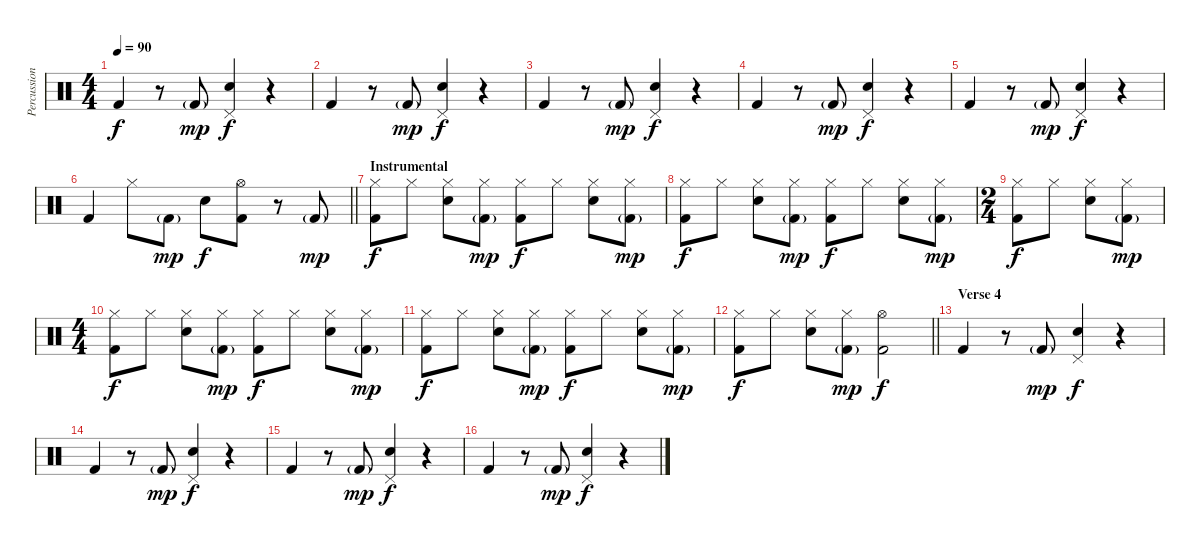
\track ("Percussion" "Percussion") {instrument percussion}
\staff {score}
\articulation defaults
\ts (4 4)
\tempo 90
\clef neutral
\ks c "Kick (hit) 2".4{dy f}
r.8 "Kick (hit) 2"{g}.8{dy mp} ("Pedal Hi-Hat (hit)" "Snare (hit) 2").4{dy f} r.4 |
"Kick (hit) 2".4 r.8 "Kick (hit) 2"{g}.8{dy mp} ("Pedal Hi-Hat (hit)" "Snare (hit) 2").4{dy f} r.4 |
"Kick (hit) 2".4 r.8 "Kick (hit) 2"{g}.8{dy mp} ("Pedal Hi-Hat (hit)" "Snare (hit) 2").4{dy f} r.4 |
"Kick (hit) 2".4 r.8 "Kick (hit) 2"{g}.8{dy mp} ("Pedal Hi-Hat (hit)" "Snare (hit) 2").4{dy f} r.4 |
"Kick (hit) 2".4 r.8 "Kick (hit) 2"{g}.8{dy mp} ("Pedal Hi-Hat (hit)" "Snare (hit) 2").4{dy f} r.4 |
\barLineRight lightlight "Kick (hit) 2".4 "Hi-Hat (closed)".8 "Kick (hit) 2"{g}.8{dy mp} "Snare (hit) 2".8{dy f}
("Hi-Hat (open)" "Kick (hit) 2").8 r.8 "Kick (hit) 2"{g}.8{dy mp} |
\section ("" "Instrumental")
("Hi-Hat (closed)" "Kick (hit) 2").8{dy f} "Hi-Hat (closed)".8 ("Hi-Hat (closed)" "Snare (hit) 2").8 ("Hi-Hat (closed)" "Kick (hit) 2"{g}).8{dy mp} ("Hi-Hat (closed)" "Kick (hit) 2").8{dy f} "Hi-Hat (closed)".8 ("Hi-Hat (closed)" "Snare (hit) 2").8 ("Hi-Hat (closed)" "Kick (hit) 2"{g}).8{dy mp} |
("Hi-Hat (closed)" "Kick (hit) 2").8{dy f} "Hi-Hat (closed)".8 ("Hi-Hat (closed)" "Snare (hit) 2").8 ("Hi-Hat (closed)" "Kick (hit) 2"{g}).8{dy mp} ("Hi-Hat (closed)" "Kick (hit) 2").8{dy f} "Hi-Hat (closed)".8 ("Hi-Hat (closed)" "Snare (hit) 2").8 ("Hi-Hat (closed)" "Kick (hit) 2"{g}).8{dy mp} |
\ts (2 4)
("Hi-Hat (closed)" "Kick (hit) 2").8{dy f} "Hi-Hat (closed)".8 ("Hi-Hat (closed)" "Snare (hit) 2").8 ("Hi-Hat (closed)" "Kick (hit) 2"{g}).8{dy mp} |
\ts (4 4)
("Hi-Hat (closed)" "Kick (hit) 2").8{dy f} "Hi-Hat (closed)".8 ("Hi-Hat (closed)" "Snare (hit) 2").8 ("Hi-Hat (closed)" "Kick (hit) 2"{g}).8{dy mp} ("Hi-Hat (closed)" "Kick (hit) 2").8{dy f} "Hi-Hat (closed)".8 ("Hi-Hat (closed)" "Snare (hit) 2").8 ("Hi-Hat (closed)" "Kick (hit) 2"{g}).8{dy mp} |
("Hi-Hat (closed)" "Kick (hit) 2").8{dy f} "Hi-Hat (closed)".8 ("Hi-Hat (closed)" "Snare (hit) 2").8 ("Hi-Hat (closed)" "Kick (hit) 2"{g}).8{dy mp} ("Hi-Hat (closed)" "Kick (hit) 2").8{dy f} "Hi-Hat (closed)".8 ("Hi-Hat (closed)" "Snare (hit) 2").8 ("Hi-Hat (closed)" "Kick (hit) 2"{g}).8{dy mp} |
\barLineRight lightlight
("Hi-Hat (closed)" "Kick (hit) 2").8{dy f} "Hi-Hat (closed)".8 ("Hi-Hat (closed)" "Snare (hit) 2").8 ("Hi-Hat (closed)" "Kick (hit) 2"{g}).8{dy mp} ("Hi-Hat (open)" "Kick (hit) 2").2{dy f} |
\section ("" "Verse 4")
"Kick (hit) 2".4 r.8 "Kick (hit) 2"{g}.8{dy mp} ("Pedal Hi-Hat (hit)" "Snare (hit) 2").4{dy f} r.4 |
"Kick (hit) 2".4 r.8 "Kick (hit) 2"{g}.8{dy mp} ("Pedal Hi-Hat (hit)" "Snare (hit) 2").4{dy f} r.4 |
"Kick (hit) 2".4 r.8 "Kick (hit) 2"{g}.8{dy mp} ("Pedal Hi-Hat (hit)" "Snare (hit) 2").4{dy f} r.4 |
"Kick (hit) 2".4 r.8 "Kick (hit) 2"{g}.8{dy mp} ("Pedal Hi-Hat (hit)" "Snare (hit) 2").4{dy f} r.4
